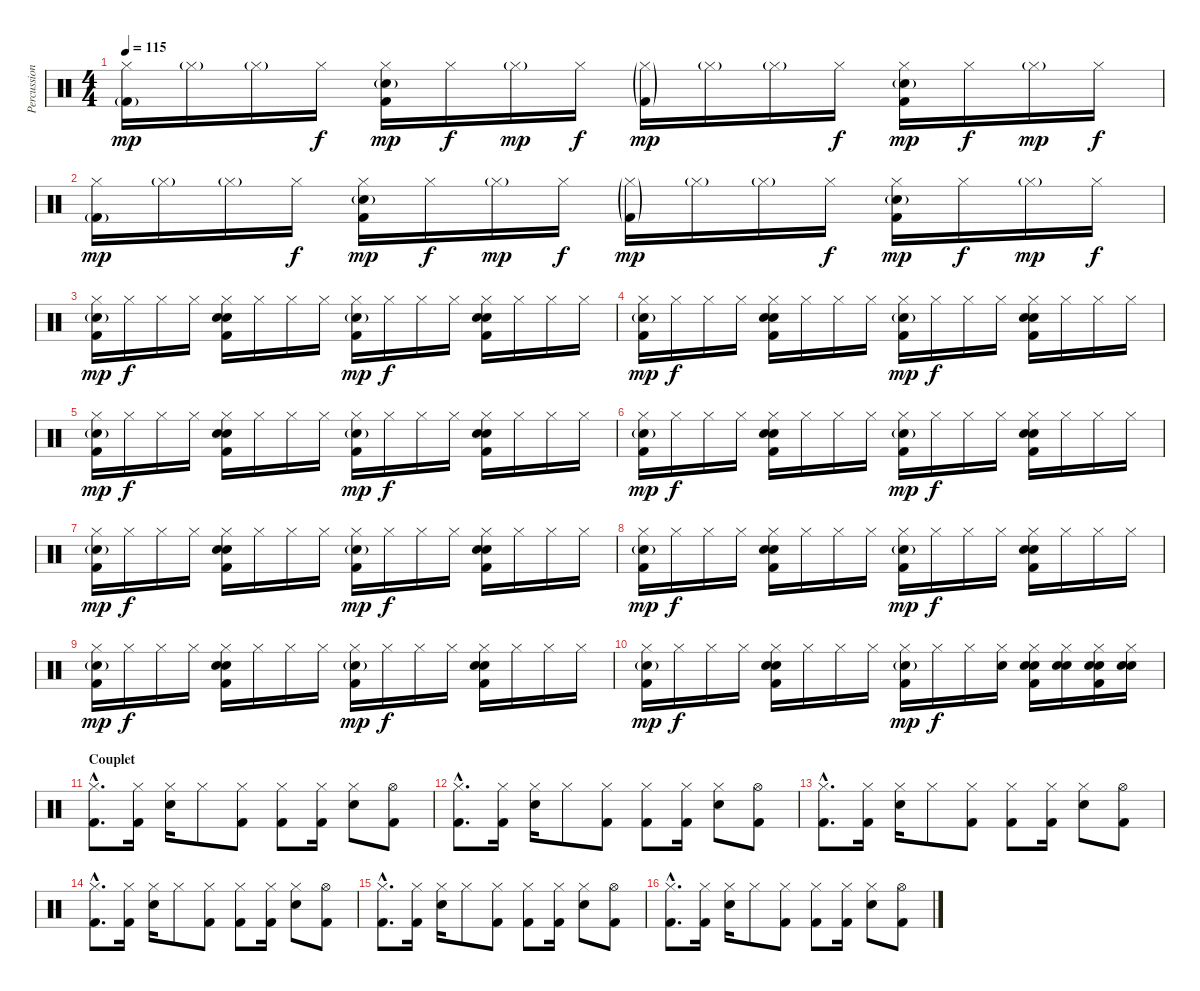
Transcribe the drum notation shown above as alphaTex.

\track ("Percussions" "Percussion") {instrument percussion}
\staff {score}
\articulation defaults
\ts (4 4)
\tempo 115
\clef neutral
\ks c
("Kick (hit) 2"{g} "Hi-Hat (closed)").16{dy mp} "Hi-Hat (closed)"{g}.16 "Hi-Hat (closed)"{g}.16 "Hi-Hat (closed)".16{dy f} ("Kick (hit) 2" "Hi-Hat (closed)" "Snare (hit) 2"{g}).16{dy mp} "Hi-Hat (closed)".16{dy f} "Hi-Hat (closed)"{g}.16{dy mp} "Hi-Hat (closed)".16{dy f} ("Kick (hit) 2"{g} "Hi-Hat (closed)"{g}).16{dy mp} "Hi-Hat (closed)"{g}.16 "Hi-Hat (closed)"{g}.16 "Hi-Hat (closed)".16{dy f} ("Kick (hit) 2" "Hi-Hat (closed)" "Snare (hit) 2"{g}).16{dy mp} "Hi-Hat (closed)".16{dy f} "Hi-Hat (closed)"{g}.16{dy mp} "Hi-Hat (closed)".16{dy f} |
("Kick (hit) 2"{g} "Hi-Hat (closed)").16{dy mp} "Hi-Hat (closed)"{g}.16 "Hi-Hat (closed)"{g}.16 "Hi-Hat (closed)".16{dy f} ("Kick (hit) 2" "Hi-Hat (closed)" "Snare (hit) 2"{g}).16{dy mp} "Hi-Hat (closed)".16{dy f} "Hi-Hat (closed)"{g}.16{dy mp} "Hi-Hat (closed)".16{dy f} ("Kick (hit) 2"{g} "Hi-Hat (closed)"{g}).16{dy mp} "Hi-Hat (closed)"{g}.16 "Hi-Hat (closed)"{g}.16 "Hi-Hat (closed)".16{dy f} ("Kick (hit) 2" "Hi-Hat (closed)" "Snare (hit) 2"{g}).16{dy mp} "Hi-Hat (closed)".16{dy f} "Hi-Hat (closed)"{g}.16{dy mp} "Hi-Hat (closed)".16{dy f} |
\section ("" "")
("Kick (hit) 2" "Hi-Hat (closed)" "Snare (hit) 2"{g}).16{dy mp} "Hi-Hat (closed)".16{dy f} "Hi-Hat (closed)".16 "Hi-Hat (closed)".16 ("Kick (hit) 2" "Hi-Hat (closed)" "Snare (hit) 2" "Snare (hit) 2").16 "Hi-Hat (closed)".16 "Hi-Hat (closed)".16 "Hi-Hat (closed)".16 ("Kick (hit) 2" "Hi-Hat (closed)" "Snare (hit) 2"{g}).16{dy mp} "Hi-Hat (closed)".16{dy f} "Hi-Hat (closed)".16 "Hi-Hat (closed)".16 ("Kick (hit) 2" "Hi-Hat (closed)" "Snare (hit) 2" "Snare (hit) 2").16 "Hi-Hat (closed)".16 "Hi-Hat (closed)".16 "Hi-Hat (closed)".16 |
("Kick (hit) 2" "Hi-Hat (closed)" "Snare (hit) 2"{g}).16{dy mp} "Hi-Hat (closed)".16{dy f} "Hi-Hat (closed)".16 "Hi-Hat (closed)".16 ("Kick (hit) 2" "Hi-Hat (closed)" "Snare (hit) 2" "Snare (hit) 2").16 "Hi-Hat (closed)".16 "Hi-Hat (closed)".16 "Hi-Hat (closed)".16 ("Kick (hit) 2" "Hi-Hat (closed)" "Snare (hit) 2"{g}).16{dy mp} "Hi-Hat (closed)".16{dy f} "Hi-Hat (closed)".16 "Hi-Hat (closed)".16 ("Kick (hit) 2" "Hi-Hat (closed)" "Snare (hit) 2" "Snare (hit) 2").16 "Hi-Hat (closed)".16 "Hi-Hat (closed)".16 "Hi-Hat (closed)".16 |
("Kick (hit) 2" "Hi-Hat (closed)" "Snare (hit) 2"{g}).16{dy mp} "Hi-Hat (closed)".16{dy f} "Hi-Hat (closed)".16 "Hi-Hat (closed)".16 ("Kick (hit) 2" "Hi-Hat (closed)" "Snare (hit) 2" "Snare (hit) 2").16 "Hi-Hat (closed)".16 "Hi-Hat (closed)".16 "Hi-Hat (closed)".16 ("Kick (hit) 2" "Hi-Hat (closed)" "Snare (hit) 2"{g}).16{dy mp} "Hi-Hat (closed)".16{dy f} "Hi-Hat (closed)".16 "Hi-Hat (closed)".16 ("Kick (hit) 2" "Hi-Hat (closed)" "Snare (hit) 2" "Snare (hit) 2").16 "Hi-Hat (closed)".16 "Hi-Hat (closed)".16 "Hi-Hat (closed)".16 |
("Kick (hit) 2" "Hi-Hat (closed)" "Snare (hit) 2"{g}).16{dy mp} "Hi-Hat (closed)".16{dy f} "Hi-Hat (closed)".16 "Hi-Hat (closed)".16 ("Kick (hit) 2" "Hi-Hat (closed)" "Snare (hit) 2" "Snare (hit) 2").16 "Hi-Hat (closed)".16 "Hi-Hat (closed)".16 "Hi-Hat (closed)".16 ("Kick (hit) 2" "Hi-Hat (closed)" "Snare (hit) 2"{g}).16{dy mp} "Hi-Hat (closed)".16{dy f} "Hi-Hat (closed)".16 "Hi-Hat (closed)".16 ("Kick (hit) 2" "Hi-Hat (closed)" "Snare (hit) 2" "Snare (hit) 2").16 "Hi-Hat (closed)".16 "Hi-Hat (closed)".16 "Hi-Hat (closed)".16 |
("Kick (hit) 2" "Hi-Hat (closed)" "Snare (hit) 2"{g}).16{dy mp} "Hi-Hat (closed)".16{dy f} "Hi-Hat (closed)".16 "Hi-Hat (closed)".16 ("Kick (hit) 2" "Hi-Hat (closed)" "Snare (hit) 2" "Snare (hit) 2").16 "Hi-Hat (closed)".16 "Hi-Hat (closed)".16 "Hi-Hat (closed)".16 ("Kick (hit) 2" "Hi-Hat (closed)" "Snare (hit) 2"{g}).16{dy mp} "Hi-Hat (closed)".16{dy f} "Hi-Hat (closed)".16 "Hi-Hat (closed)".16 ("Kick (hit) 2" "Hi-Hat (closed)" "Snare (hit) 2" "Snare (hit) 2").16 "Hi-Hat (closed)".16 "Hi-Hat (closed)".16 "Hi-Hat (closed)".16 |
("Kick (hit) 2" "Hi-Hat (closed)" "Snare (hit) 2"{g}).16{dy mp} "Hi-Hat (closed)".16{dy f} "Hi-Hat (closed)".16 "Hi-Hat (closed)".16 ("Kick (hit) 2" "Hi-Hat (closed)" "Snare (hit) 2" "Snare (hit) 2").16 "Hi-Hat (closed)".16 "Hi-Hat (closed)".16 "Hi-Hat (closed)".16 ("Kick (hit) 2" "Hi-Hat (closed)" "Snare (hit) 2"{g}).16{dy mp} "Hi-Hat (closed)".16{dy f} "Hi-Hat (closed)".16 "Hi-Hat (closed)".16 ("Kick (hit) 2" "Hi-Hat (closed)" "Snare (hit) 2" "Snare (hit) 2").16 "Hi-Hat (closed)".16 "Hi-Hat (closed)".16 "Hi-Hat (closed)".16 |
("Kick (hit) 2" "Hi-Hat (closed)" "Snare (hit) 2"{g}).16{dy mp} "Hi-Hat (closed)".16{dy f} "Hi-Hat (closed)".16 "Hi-Hat (closed)".16 ("Kick (hit) 2" "Hi-Hat (closed)" "Snare (hit) 2" "Snare (hit) 2").16 "Hi-Hat (closed)".16 "Hi-Hat (closed)".16 "Hi-Hat (closed)".16 ("Kick (hit) 2" "Hi-Hat (closed)" "Snare (hit) 2"{g}).16{dy mp} "Hi-Hat (closed)".16{dy f} "Hi-Hat (closed)".16 "Hi-Hat (closed)".16 ("Kick (hit) 2" "Hi-Hat (closed)" "Snare (hit) 2" "Snare (hit) 2").16 "Hi-Hat (closed)".16 "Hi-Hat (closed)".16 "Hi-Hat (closed)".16 |
("Kick (hit) 2" "Hi-Hat (closed)" "Snare (hit) 2"{g}).16{dy mp} "Hi-Hat (closed)".16{dy f} "Hi-Hat (closed)".16 "Hi-Hat (closed)".16 ("Kick (hit) 2" "Hi-Hat (closed)" "Snare (hit) 2" "Snare (hit) 2").16 "Hi-Hat (closed)".16 "Hi-Hat (closed)".16 "Hi-Hat (closed)".16 ("Kick (hit) 2" "Hi-Hat (closed)" "Snare (hit) 2"{g}).16{dy mp} "Hi-Hat (closed)".16{dy f} "Hi-Hat (closed)".16 ("Hi-Hat (closed)" "Snare (hit) 2").16 ("Kick (hit) 2" "Hi-Hat (closed)" "Snare (hit) 2" "Snare (hit) 2").16 ("Hi-Hat (closed)" "Snare (hit) 2" "Snare (hit) 2").16 ("Kick (hit) 2" "Hi-Hat (closed)" "Snare (hit) 2" "Snare (hit) 2").16 ("Hi-Hat (closed)" "Snare (hit) 2" "Snare (hit) 2").16 |
\section ("" "Couplet")
("Kick (hit) 2"{hac} "Hi-Hat (closed)"{hac}).8{d} ("Kick (hit) 2" "Hi-Hat (closed)").16 ("Hi-Hat (closed)" "Snare (hit) 2").16 "Hi-Hat (closed)".8 ("Kick (hit) 2" "Hi-Hat (closed)").8 ("Kick (hit) 2" "Hi-Hat (closed)").8 ("Kick (hit) 2" "Hi-Hat (closed)").16 ("Hi-Hat (closed)" "Snare (hit) 2").8 ("Kick (hit) 2" "Hi-Hat (open)").8 |
("Kick (hit) 2"{hac} "Hi-Hat (closed)"{hac}).8{d} ("Kick (hit) 2" "Hi-Hat (closed)").16 ("Hi-Hat (closed)" "Snare (hit) 2").16 "Hi-Hat (closed)".8 ("Kick (hit) 2" "Hi-Hat (closed)").8 ("Kick (hit) 2" "Hi-Hat (closed)").8 ("Kick (hit) 2" "Hi-Hat (closed)").16 ("Hi-Hat (closed)" "Snare (hit) 2").8 ("Kick (hit) 2" "Hi-Hat (open)").8 |
("Kick (hit) 2"{hac} "Hi-Hat (closed)"{hac}).8{d} ("Kick (hit) 2" "Hi-Hat (closed)").16 ("Hi-Hat (closed)" "Snare (hit) 2").16 "Hi-Hat (closed)".8 ("Kick (hit) 2" "Hi-Hat (closed)").8 ("Kick (hit) 2" "Hi-Hat (closed)").8 ("Kick (hit) 2" "Hi-Hat (closed)").16 ("Hi-Hat (closed)" "Snare (hit) 2").8 ("Kick (hit) 2" "Hi-Hat (open)").8 |
("Kick (hit) 2"{hac} "Hi-Hat (closed)"{hac}).8{d} ("Kick (hit) 2" "Hi-Hat (closed)").16 ("Hi-Hat (closed)" "Snare (hit) 2").16 "Hi-Hat (closed)".8 ("Kick (hit) 2" "Hi-Hat (closed)").8 ("Kick (hit) 2" "Hi-Hat (closed)").8 ("Kick (hit) 2" "Hi-Hat (closed)").16 ("Hi-Hat (closed)" "Snare (hit) 2").8 ("Kick (hit) 2" "Hi-Hat (open)").8 |
("Kick (hit) 2"{hac} "Hi-Hat (closed)"{hac}).8{d} ("Kick (hit) 2" "Hi-Hat (closed)").16 ("Hi-Hat (closed)" "Snare (hit) 2").16 "Hi-Hat (closed)".8 ("Kick (hit) 2" "Hi-Hat (closed)").8 ("Kick (hit) 2" "Hi-Hat (closed)").8 ("Kick (hit) 2" "Hi-Hat (closed)").16 ("Hi-Hat (closed)" "Snare (hit) 2").8 ("Kick (hit) 2" "Hi-Hat (open)").8 |
("Kick (hit) 2"{hac} "Hi-Hat (closed)"{hac}).8{d} ("Kick (hit) 2" "Hi-Hat (closed)").16 ("Hi-Hat (closed)" "Snare (hit) 2").16 "Hi-Hat (closed)".8 ("Kick (hit) 2" "Hi-Hat (closed)").8 ("Kick (hit) 2" "Hi-Hat (closed)").8 ("Kick (hit) 2" "Hi-Hat (closed)").16 ("Hi-Hat (closed)" "Snare (hit) 2").8 ("Kick (hit) 2" "Hi-Hat (open)").8
